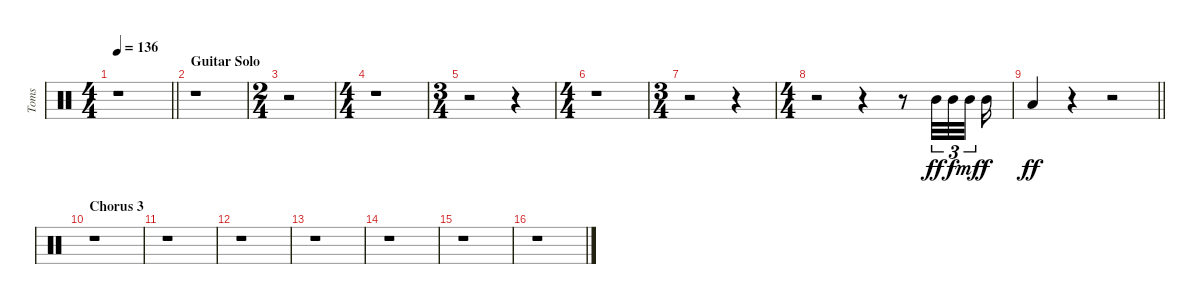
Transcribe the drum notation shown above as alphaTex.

\track ("Toms" "Toms") {instrument percussion}
\staff {score}
\articulation defaults
\ts (4 4)
\tempo 136
\clef neutral
\barLineRight lightlight
\ks c
r.1{dy ff} |
\section ("" "Guitar Solo")
r.1 |
\ts (2 4)
r.2 |
\ts (4 4)
r.1 |
\ts (3 4)
r.2 r.4 |
\ts (4 4)
r.1 |
\ts (3 4)
r.2 r.4 |
\ts (4 4)
r.2 r.4 r.8 "Mid Tom (hit)".32{tu (3 2)} "Mid Tom (hit)".32{tu (3 2) dy f} "Mid Tom (hit)".32{tu (3 2) dy mf beam splitsecondary} "Mid Tom (hit)".16{dy f} |
\barLineRight lightlight "Low Tom (hit)".4{dy ff balance 5}
r.4 r.2 |
\section ("" "Chorus 3")
r.1 |
r.1 |
r.1 |
r.1 |
r.1 |
r.1 |
r.1
